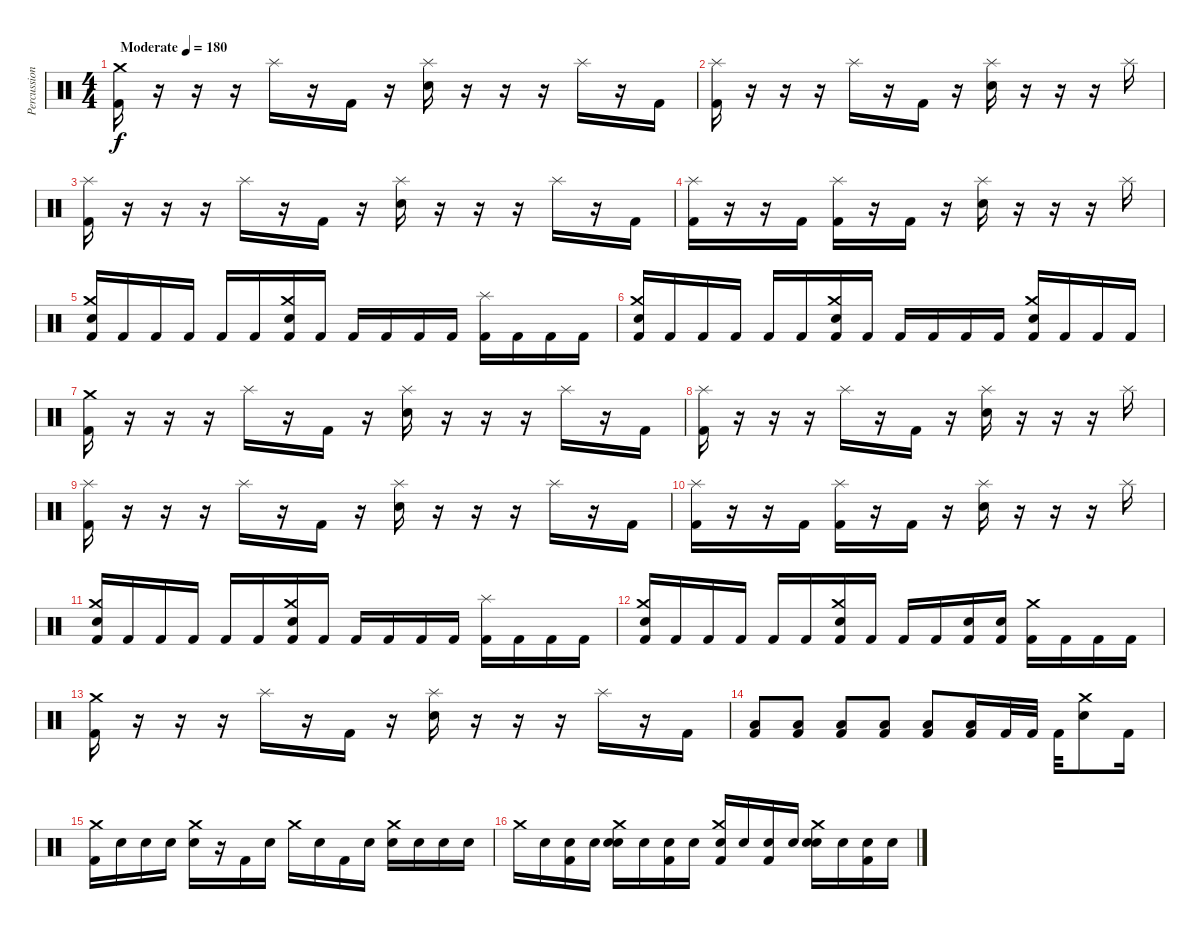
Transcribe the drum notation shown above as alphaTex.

\track ("Percussion" "Percussion") {instrument percussion}
\staff {score}
\articulation defaults
\ts (4 4)
\tempo (180 "Moderate")
\clef neutral
\ks c
("Kick (hit) 2" "Crash medium (hit)").16{dy f} r.16 r.16 r.16 "Splash (hit)".16 r.16 "Kick (hit) 2".16 r.16 ("Snare (hit) 2" "Splash (hit)").16 r.16 r.16 r.16 "Splash (hit)".16 r.16 "Kick (hit) 2".16 |
("Kick (hit) 2" "Splash (hit)").16 r.16 r.16 r.16 "Splash (hit)".16 r.16 "Kick (hit) 2".16 r.16 ("Snare (hit) 2" "Splash (hit)").16 r.16 r.16 r.16 "Splash (hit)".16 |
("Kick (hit) 2" "Splash (hit)").16 r.16 r.16 r.16 "Splash (hit)".16 r.16 "Kick (hit) 2".16 r.16 ("Snare (hit) 2" "Splash (hit)").16 r.16 r.16 r.16 "Splash (hit)".16 r.16 "Kick (hit) 2".16 |
("Kick (hit) 2" "Splash (hit)").16 r.16 r.16 "Kick (hit) 2".16 ("Splash (hit)" "Kick (hit) 2").16 r.16 "Kick (hit) 2".16 r.16 ("Snare (hit) 2" "Splash (hit)").16 r.16 r.16 r.16 "Splash (hit)".16 |
("Crash medium (hit)" "Kick (hit) 2" "Snare (hit) 2").16 "Kick (hit) 2".16 "Kick (hit) 2".16 "Kick (hit) 2".16 "Kick (hit) 2".16 "Kick (hit) 2".16 ("Crash medium (hit)" "Snare (hit) 2" "Kick (hit) 2").16 "Kick (hit) 2".16 "Kick (hit) 2".16 "Kick (hit) 2".16 "Kick (hit) 2".16 "Kick (hit) 2".16 ("Splash (hit)" "Kick (hit) 2").16 "Kick (hit) 2".16 "Kick (hit) 2".16 "Kick (hit) 2".16 |
("Crash medium (hit)" "Kick (hit) 2" "Snare (hit) 2").16 "Kick (hit) 2".16 "Kick (hit) 2".16 "Kick (hit) 2".16 "Kick (hit) 2".16 "Kick (hit) 2".16 ("Crash medium (hit)" "Snare (hit) 2" "Kick (hit) 2").16 "Kick (hit) 2".16 "Kick (hit) 2".16 "Kick (hit) 2".16 "Kick (hit) 2".16 "Kick (hit) 2".16 ("Snare (hit) 2" "Crash medium (hit)" "Kick (hit) 2").16 "Kick (hit) 2".16 "Kick (hit) 2".16 "Kick (hit) 2".16 |
("Kick (hit) 2" "Crash medium (hit)").16 r.16 r.16 r.16 "Splash (hit)".16 r.16 "Kick (hit) 2".16 r.16 ("Snare (hit) 2" "Splash (hit)").16 r.16 r.16 r.16 "Splash (hit)".16 r.16 "Kick (hit) 2".16 |
("Kick (hit) 2" "Splash (hit)").16 r.16 r.16 r.16 "Splash (hit)".16 r.16 "Kick (hit) 2".16 r.16 ("Snare (hit) 2" "Splash (hit)").16 r.16 r.16 r.16 "Splash (hit)".16 |
("Kick (hit) 2" "Splash (hit)").16 r.16 r.16 r.16 "Splash (hit)".16 r.16 "Kick (hit) 2".16 r.16 ("Snare (hit) 2" "Splash (hit)").16 r.16 r.16 r.16 "Splash (hit)".16 r.16 "Kick (hit) 2".16 |
("Kick (hit) 2" "Splash (hit)").16 r.16 r.16 "Kick (hit) 2".16 ("Splash (hit)" "Kick (hit) 2").16 r.16 "Kick (hit) 2".16 r.16 ("Snare (hit) 2" "Splash (hit)").16 r.16 r.16 r.16 "Splash (hit)".16 |
("Crash medium (hit)" "Kick (hit) 2" "Snare (hit) 2").16 "Kick (hit) 2".16 "Kick (hit) 2".16 "Kick (hit) 2".16 "Kick (hit) 2".16 "Kick (hit) 2".16 ("Crash medium (hit)" "Snare (hit) 2" "Kick (hit) 2").16 "Kick (hit) 2".16 "Kick (hit) 2".16 "Kick (hit) 2".16 "Kick (hit) 2".16 "Kick (hit) 2".16 ("Splash (hit)" "Kick (hit) 2").16 "Kick (hit) 2".16 "Kick (hit) 2".16 "Kick (hit) 2".16 |
("Crash medium (hit)" "Kick (hit) 2" "Snare (hit) 2").16 "Kick (hit) 2".16 "Kick (hit) 2".16 "Kick (hit) 2".16 "Kick (hit) 2".16 "Kick (hit) 2".16 ("Crash medium (hit)" "Snare (hit) 2" "Kick (hit) 2").16 "Kick (hit) 2".16 "Kick (hit) 2".16 "Kick (hit) 2".16 ("Snare (hit) 2" "Kick (hit) 2").16 ("Snare (hit) 2" "Kick (hit) 2").16 ("Crash medium (hit)" "Kick (hit) 2").16 "Kick (hit) 2".16 "Kick (hit) 2".16 "Kick (hit) 2".16 |
("Kick (hit) 2" "Crash medium (hit)").16 r.16 r.16 r.16 "Splash (hit)".16 r.16 "Kick (hit) 2".16 r.16 ("Snare (hit) 2" "Splash (hit)").16 r.16 r.16 r.16 "Splash (hit)".16 r.16 "Kick (hit) 2".16 |
("Low Floor Tom (hit)" "Kick (hit) 2").8 ("Low Floor Tom (hit)" "Kick (hit) 2").8 ("Low Floor Tom (hit)" "Kick (hit) 2").8 ("Low Floor Tom (hit)" "Kick (hit) 2").8 ("Low Floor Tom (hit)" "Kick (hit) 2").8 ("Low Floor Tom (hit)" "Kick (hit) 2").16 "Kick (hit) 2".32 "Kick (hit) 2".32 "Kick (hit) 2".32 ("Snare (hit) 2" "Crash medium (hit)").8 "Kick (hit) 2".16 |
("Kick (hit) 2" "Crash medium (hit)").16 "Snare (hit)".16 "Snare (hit)".16 "Snare (hit)".16 ("Snare (hit) 2" "Crash medium (hit)").16 r.16 "Kick (hit) 2".16 "Snare (hit)".16 "Crash medium (hit)".16 "Snare (hit)".16 "Kick (hit) 2".16 "Snare (hit)".16 ("Snare (hit) 2" "Crash medium (hit)").16 "Snare (hit)".16 "Snare (hit)".16 "Snare (hit)".16 |
"Crash medium (hit)".16 "Snare (hit)".16 ("Snare (hit)" "Kick (hit) 2").16 "Snare (hit)".16 ("Snare (hit)" "Snare (hit) 2" "Crash medium (hit)").16 "Snare (hit)".16 ("Snare (hit)" "Kick (hit) 2").16 "Snare (hit)".16 ("Snare (hit)" "Kick (hit) 2" "Crash medium (hit)").16 "Snare (hit)".16 ("Snare (hit)" "Kick (hit) 2").16 "Snare (hit)".16 ("Snare (hit)" "Crash medium (hit)" "Snare (hit) 2").16 "Snare (hit)".16 ("Snare (hit)" "Kick (hit) 2").16 "Snare (hit)".16
